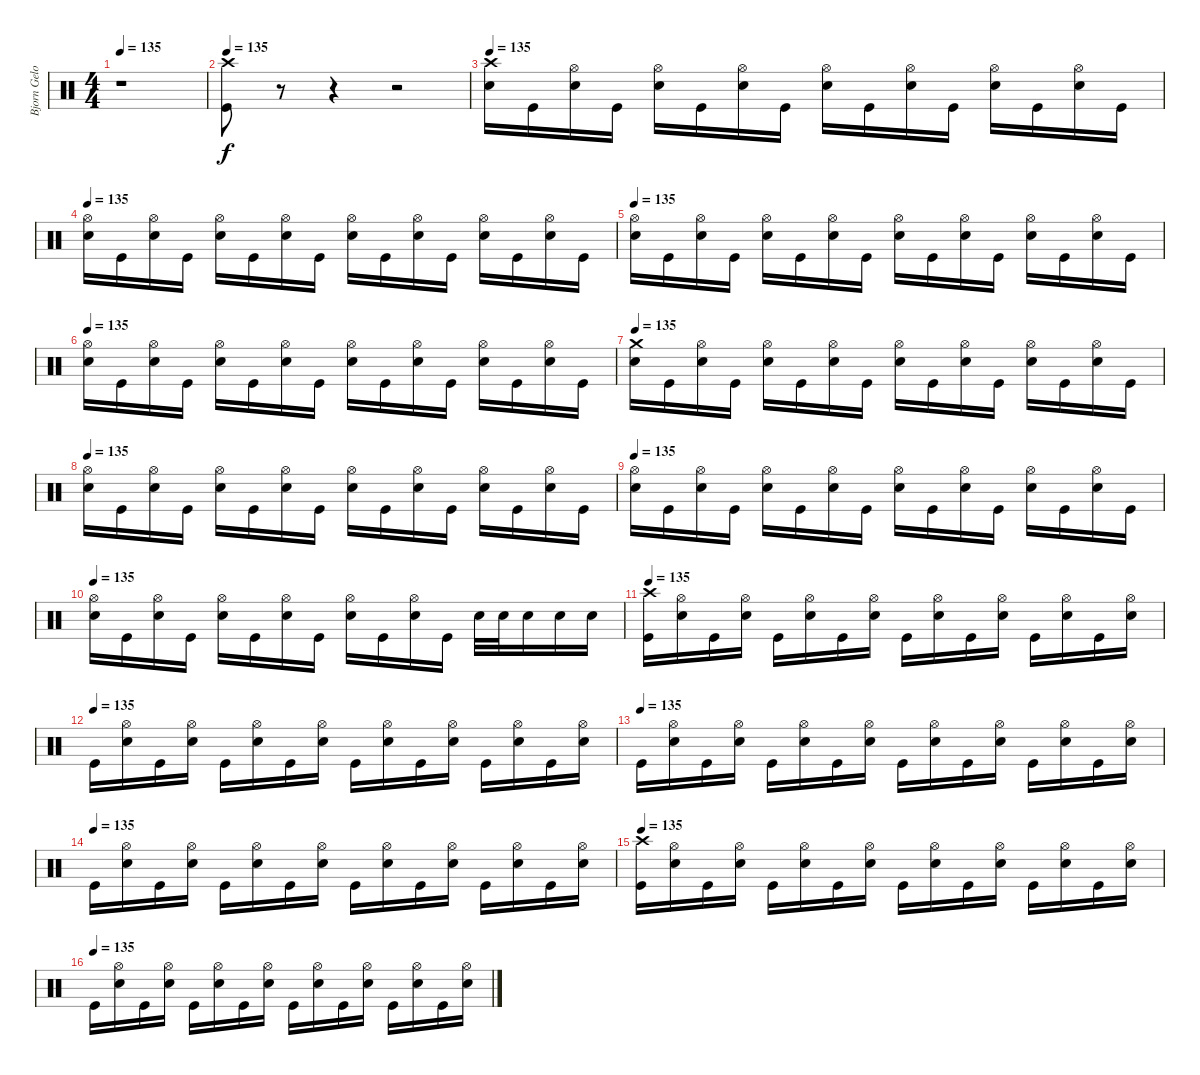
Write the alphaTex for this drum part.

\track ("Bjorn Gelotte-Drum" "Bjorn Gelo") {instrument percussion}
\staff {score}
\articulation defaults
\ts (4 4)
\tempo 135
\clef neutral
\ks c
r.1{dy f} |
\tempo 135
("Kick (hit)" "Crash high (hit)").8 r.8 r.4 r.2 |
\tempo 135
("Electric Snare (hit)" "Crash high (hit)").16 "Kick (hit)".16 ("Electric Snare (hit)" "Hi-Hat (open)").16 "Kick (hit)".16 ("Electric Snare (hit)" "Hi-Hat (open)").16 "Kick (hit)".16 ("Electric Snare (hit)" "Hi-Hat (open)").16 "Kick (hit)".16 ("Electric Snare (hit)" "Hi-Hat (open)").16 "Kick (hit)".16 ("Electric Snare (hit)" "Hi-Hat (open)").16 "Kick (hit)".16 ("Electric Snare (hit)" "Hi-Hat (open)").16 "Kick (hit)".16 ("Electric Snare (hit)" "Hi-Hat (open)").16 "Kick (hit)".16 |
\tempo 135
("Electric Snare (hit)" "Hi-Hat (open)").16 "Kick (hit)".16 ("Electric Snare (hit)" "Hi-Hat (open)").16 "Kick (hit)".16 ("Electric Snare (hit)" "Hi-Hat (open)").16 "Kick (hit)".16 ("Electric Snare (hit)" "Hi-Hat (open)").16 "Kick (hit)".16 ("Electric Snare (hit)" "Hi-Hat (open)").16 "Kick (hit)".16 ("Electric Snare (hit)" "Hi-Hat (open)").16 "Kick (hit)".16 ("Electric Snare (hit)" "Hi-Hat (open)").16 "Kick (hit)".16 ("Electric Snare (hit)" "Hi-Hat (open)").16 "Kick (hit)".16 |
\tempo 135
("Electric Snare (hit)" "Hi-Hat (open)").16 "Kick (hit)".16 ("Electric Snare (hit)" "Hi-Hat (open)").16 "Kick (hit)".16 ("Electric Snare (hit)" "Hi-Hat (open)").16 "Kick (hit)".16 ("Electric Snare (hit)" "Hi-Hat (open)").16 "Kick (hit)".16 ("Electric Snare (hit)" "Hi-Hat (open)").16 "Kick (hit)".16 ("Electric Snare (hit)" "Hi-Hat (open)").16 "Kick (hit)".16 ("Electric Snare (hit)" "Hi-Hat (open)").16 "Kick (hit)".16 ("Electric Snare (hit)" "Hi-Hat (open)").16 "Kick (hit)".16 |
\tempo 135
("Electric Snare (hit)" "Hi-Hat (open)").16 "Kick (hit)".16 ("Electric Snare (hit)" "Hi-Hat (open)").16 "Kick (hit)".16 ("Electric Snare (hit)" "Hi-Hat (open)").16 "Kick (hit)".16 ("Electric Snare (hit)" "Hi-Hat (open)").16 "Kick (hit)".16 ("Electric Snare (hit)" "Hi-Hat (open)").16 "Kick (hit)".16 ("Electric Snare (hit)" "Hi-Hat (open)").16 "Kick (hit)".16 ("Electric Snare (hit)" "Hi-Hat (open)").16 "Kick (hit)".16 ("Electric Snare (hit)" "Hi-Hat (open)").16 "Kick (hit)".16 |
\tempo 135
("Electric Snare (hit)" "Crash medium (hit)").16 "Kick (hit)".16 ("Electric Snare (hit)" "Hi-Hat (open)").16 "Kick (hit)".16 ("Electric Snare (hit)" "Hi-Hat (open)").16 "Kick (hit)".16 ("Electric Snare (hit)" "Hi-Hat (open)").16 "Kick (hit)".16 ("Electric Snare (hit)" "Hi-Hat (open)").16 "Kick (hit)".16 ("Electric Snare (hit)" "Hi-Hat (open)").16 "Kick (hit)".16 ("Electric Snare (hit)" "Hi-Hat (open)").16 "Kick (hit)".16 ("Electric Snare (hit)" "Hi-Hat (open)").16 "Kick (hit)".16 |
\tempo 135
("Electric Snare (hit)" "Hi-Hat (open)").16 "Kick (hit)".16 ("Electric Snare (hit)" "Hi-Hat (open)").16 "Kick (hit)".16 ("Electric Snare (hit)" "Hi-Hat (open)").16 "Kick (hit)".16 ("Electric Snare (hit)" "Hi-Hat (open)").16 "Kick (hit)".16 ("Electric Snare (hit)" "Hi-Hat (open)").16 "Kick (hit)".16 ("Electric Snare (hit)" "Hi-Hat (open)").16 "Kick (hit)".16 ("Electric Snare (hit)" "Hi-Hat (open)").16 "Kick (hit)".16 ("Electric Snare (hit)" "Hi-Hat (open)").16 "Kick (hit)".16 |
\tempo 135
("Electric Snare (hit)" "Hi-Hat (open)").16 "Kick (hit)".16 ("Electric Snare (hit)" "Hi-Hat (open)").16 "Kick (hit)".16 ("Electric Snare (hit)" "Hi-Hat (open)").16 "Kick (hit)".16 ("Electric Snare (hit)" "Hi-Hat (open)").16 "Kick (hit)".16 ("Electric Snare (hit)" "Hi-Hat (open)").16 "Kick (hit)".16 ("Electric Snare (hit)" "Hi-Hat (open)").16 "Kick (hit)".16 ("Electric Snare (hit)" "Hi-Hat (open)").16 "Kick (hit)".16 ("Electric Snare (hit)" "Hi-Hat (open)").16 "Kick (hit)".16 |
\tempo 135
("Electric Snare (hit)" "Hi-Hat (open)").16 "Kick (hit)".16 ("Electric Snare (hit)" "Hi-Hat (open)").16 "Kick (hit)".16 ("Electric Snare (hit)" "Hi-Hat (open)").16 "Kick (hit)".16 ("Electric Snare (hit)" "Hi-Hat (open)").16 "Kick (hit)".16 ("Electric Snare (hit)" "Hi-Hat (open)").16 "Kick (hit)".16 ("Electric Snare (hit)" "Hi-Hat (open)").16 "Kick (hit)".16 "Electric Snare (hit)".32 "Electric Snare (hit)".32 "Electric Snare (hit)".16 "Electric Snare (hit)".16 "Electric Snare (hit)".16 |
\tempo 135
("Kick (hit)" "Crash high (hit)").16 ("Electric Snare (hit)" "Hi-Hat (open)").16 "Kick (hit)".16 ("Electric Snare (hit)" "Hi-Hat (open)").16 "Kick (hit)".16 ("Electric Snare (hit)" "Hi-Hat (open)").16 "Kick (hit)".16 ("Electric Snare (hit)" "Hi-Hat (open)").16 "Kick (hit)".16 ("Electric Snare (hit)" "Hi-Hat (open)").16 "Kick (hit)".16 ("Electric Snare (hit)" "Hi-Hat (open)").16 "Kick (hit)".16 ("Electric Snare (hit)" "Hi-Hat (open)").16 "Kick (hit)".16 ("Electric Snare (hit)" "Hi-Hat (open)").16 |
\tempo (135)
"Kick (hit)".16 ("Electric Snare (hit)" "Hi-Hat (open)").16 "Kick (hit)".16 ("Electric Snare (hit)" "Hi-Hat (open)").16 "Kick (hit)".16 ("Electric Snare (hit)" "Hi-Hat (open)").16 "Kick (hit)".16 ("Electric Snare (hit)" "Hi-Hat (open)").16 "Kick (hit)".16 ("Electric Snare (hit)" "Hi-Hat (open)").16 "Kick (hit)".16 ("Electric Snare (hit)" "Hi-Hat (open)").16 "Kick (hit)".16 ("Electric Snare (hit)" "Hi-Hat (open)").16 "Kick (hit)".16 ("Electric Snare (hit)" "Hi-Hat (open)").16 |
\tempo (135)
"Kick (hit)".16 ("Electric Snare (hit)" "Hi-Hat (open)").16 "Kick (hit)".16 ("Electric Snare (hit)" "Hi-Hat (open)").16 "Kick (hit)".16 ("Electric Snare (hit)" "Hi-Hat (open)").16 "Kick (hit)".16 ("Electric Snare (hit)" "Hi-Hat (open)").16 "Kick (hit)".16 ("Electric Snare (hit)" "Hi-Hat (open)").16 "Kick (hit)".16 ("Electric Snare (hit)" "Hi-Hat (open)").16 "Kick (hit)".16 ("Electric Snare (hit)" "Hi-Hat (open)").16 "Kick (hit)".16 ("Electric Snare (hit)" "Hi-Hat (open)").16 |
\tempo (135)
"Kick (hit)".16 ("Electric Snare (hit)" "Hi-Hat (open)").16 "Kick (hit)".16 ("Electric Snare (hit)" "Hi-Hat (open)").16 "Kick (hit)".16 ("Electric Snare (hit)" "Hi-Hat (open)").16 "Kick (hit)".16 ("Electric Snare (hit)" "Hi-Hat (open)").16 "Kick (hit)".16 ("Electric Snare (hit)" "Hi-Hat (open)").16 "Kick (hit)".16 ("Electric Snare (hit)" "Hi-Hat (open)").16 "Kick (hit)".16 ("Electric Snare (hit)" "Hi-Hat (open)").16 "Kick (hit)".16 ("Electric Snare (hit)" "Hi-Hat (open)").16 |
\tempo 135
("Kick (hit)" "Crash high (hit)").16 ("Electric Snare (hit)" "Hi-Hat (open)").16 "Kick (hit)".16 ("Electric Snare (hit)" "Hi-Hat (open)").16 "Kick (hit)".16 ("Electric Snare (hit)" "Hi-Hat (open)").16 "Kick (hit)".16 ("Electric Snare (hit)" "Hi-Hat (open)").16 "Kick (hit)".16 ("Electric Snare (hit)" "Hi-Hat (open)").16 "Kick (hit)".16 ("Electric Snare (hit)" "Hi-Hat (open)").16 "Kick (hit)".16 ("Electric Snare (hit)" "Hi-Hat (open)").16 "Kick (hit)".16 ("Electric Snare (hit)" "Hi-Hat (open)").16 |
\tempo (135)
"Kick (hit)".16 ("Electric Snare (hit)" "Hi-Hat (open)").16 "Kick (hit)".16 ("Electric Snare (hit)" "Hi-Hat (open)").16 "Kick (hit)".16 ("Electric Snare (hit)" "Hi-Hat (open)").16 "Kick (hit)".16 ("Electric Snare (hit)" "Hi-Hat (open)").16 "Kick (hit)".16 ("Electric Snare (hit)" "Hi-Hat (open)").16 "Kick (hit)".16 ("Electric Snare (hit)" "Hi-Hat (open)").16 "Kick (hit)".16 ("Electric Snare (hit)" "Hi-Hat (open)").16 "Kick (hit)".16 ("Electric Snare (hit)" "Hi-Hat (open)").16
